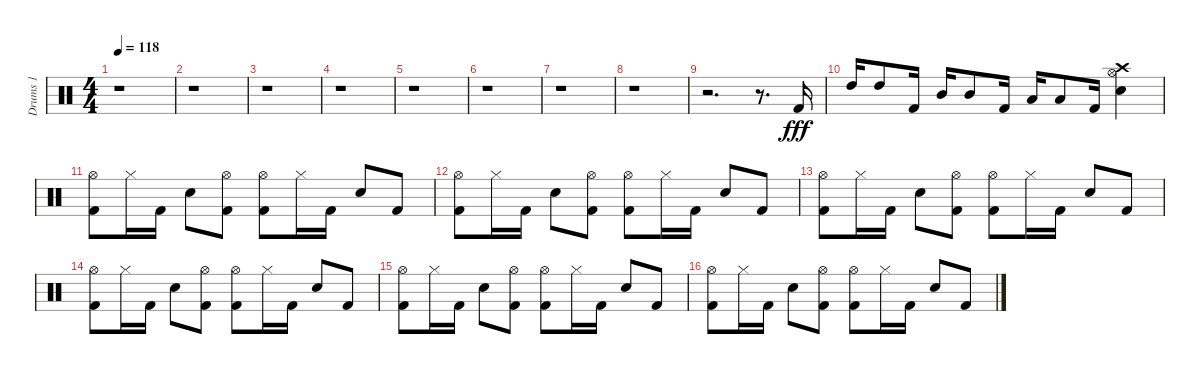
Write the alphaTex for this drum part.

\track ("Drums 1" "Drums 1") {instrument percussion}
\staff {score}
\articulation defaults
\ts (4 4)
\tempo 118
\clef neutral
\ks c
r.1{dy fff} |
r.1 |
r.1 |
r.1 |
r.1 |
r.1 |
r.1 |
r.1 |
r.2{d} r.8{d volume 16} "Kick (hit) 2".16 |
"High Tom (hit)".16 "High Tom (hit)".8 "Kick (hit) 2".16 "Mid Tom (hit)".16 "Mid Tom (hit)".8 "Kick (hit) 2".16 "Low Tom (hit)".16 "Low Tom (hit)".8 "Kick (hit) 2".16 ("Hi-Hat (open)" "Electric Snare (hit)" "Crash high (hit)").4 |
("Hi-Hat (open)" "Kick (hit) 2").8{volume 12} "Hi-Hat (closed)".16 "Kick (hit) 2".16 "Electric Snare (hit)".8 ("Hi-Hat (open)" "Kick (hit) 2").8 ("Hi-Hat (open)" "Kick (hit) 2").8 "Hi-Hat (closed)".16 "Kick (hit) 2".16 "Electric Snare (hit)".8 "Kick (hit) 2".8 |
("Hi-Hat (open)" "Kick (hit) 2").8 "Hi-Hat (closed)".16 "Kick (hit) 2".16 "Electric Snare (hit)".8 ("Hi-Hat (open)" "Kick (hit) 2").8 ("Hi-Hat (open)" "Kick (hit) 2").8 "Hi-Hat (closed)".16 "Kick (hit) 2".16 "Electric Snare (hit)".8 "Kick (hit) 2".8 |
("Hi-Hat (open)" "Kick (hit) 2").8 "Hi-Hat (closed)".16 "Kick (hit) 2".16 "Electric Snare (hit)".8 ("Hi-Hat (open)" "Kick (hit) 2").8 ("Hi-Hat (open)" "Kick (hit) 2").8 "Hi-Hat (closed)".16 "Kick (hit) 2".16 "Electric Snare (hit)".8 "Kick (hit) 2".8 |
("Hi-Hat (open)" "Kick (hit) 2").8 "Hi-Hat (closed)".16 "Kick (hit) 2".16 "Electric Snare (hit)".8 ("Hi-Hat (open)" "Kick (hit) 2").8 ("Hi-Hat (open)" "Kick (hit) 2").8 "Hi-Hat (closed)".16 "Kick (hit) 2".16 "Electric Snare (hit)".8 "Kick (hit) 2".8 |
("Hi-Hat (open)" "Kick (hit) 2").8 "Hi-Hat (closed)".16 "Kick (hit) 2".16 "Electric Snare (hit)".8 ("Hi-Hat (open)" "Kick (hit) 2").8 ("Hi-Hat (open)" "Kick (hit) 2").8 "Hi-Hat (closed)".16 "Kick (hit) 2".16 "Electric Snare (hit)".8 "Kick (hit) 2".8 |
("Hi-Hat (open)" "Kick (hit) 2").8 "Hi-Hat (closed)".16 "Kick (hit) 2".16 "Electric Snare (hit)".8 ("Hi-Hat (open)" "Kick (hit) 2").8 ("Hi-Hat (open)" "Kick (hit) 2").8 "Hi-Hat (closed)".16 "Kick (hit) 2".16 "Electric Snare (hit)".8 "Kick (hit) 2".8
